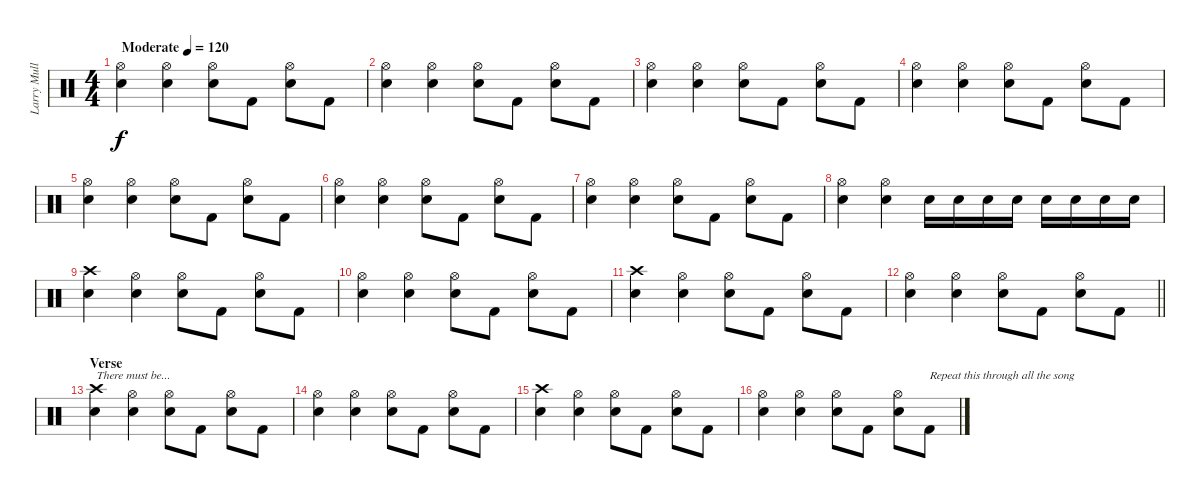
\track ("Larry Mullen Jr" "Larry Mull") {instrument percussion}
\staff {score}
\articulation defaults
\ts (4 4)
\tempo (120 "Moderate")
\clef neutral
\ks c
("Snare (hit) 2" "Hi-Hat (open)").4{dy f} ("Snare (hit) 2" "Hi-Hat (open)").4 ("Snare (hit) 2" "Hi-Hat (open)").8 "Kick (hit) 2".8 ("Snare (hit) 2" "Hi-Hat (open)").8 "Kick (hit) 2".8 |
("Snare (hit) 2" "Hi-Hat (open)").4 ("Snare (hit) 2" "Hi-Hat (open)").4 ("Snare (hit) 2" "Hi-Hat (open)").8 "Kick (hit) 2".8 ("Snare (hit) 2" "Hi-Hat (open)").8 "Kick (hit) 2".8 |
("Snare (hit) 2" "Hi-Hat (open)").4 ("Snare (hit) 2" "Hi-Hat (open)").4 ("Snare (hit) 2" "Hi-Hat (open)").8 "Kick (hit) 2".8 ("Snare (hit) 2" "Hi-Hat (open)").8 "Kick (hit) 2".8 |
("Snare (hit) 2" "Hi-Hat (open)").4 ("Snare (hit) 2" "Hi-Hat (open)").4 ("Snare (hit) 2" "Hi-Hat (open)").8 "Kick (hit) 2".8 ("Snare (hit) 2" "Hi-Hat (open)").8 "Kick (hit) 2".8 |
("Snare (hit) 2" "Hi-Hat (open)").4 ("Snare (hit) 2" "Hi-Hat (open)").4 ("Snare (hit) 2" "Hi-Hat (open)").8 "Kick (hit) 2".8 ("Snare (hit) 2" "Hi-Hat (open)").8 "Kick (hit) 2".8 |
("Snare (hit) 2" "Hi-Hat (open)").4 ("Snare (hit) 2" "Hi-Hat (open)").4 ("Snare (hit) 2" "Hi-Hat (open)").8 "Kick (hit) 2".8 ("Snare (hit) 2" "Hi-Hat (open)").8 "Kick (hit) 2".8 |
("Snare (hit) 2" "Hi-Hat (open)").4 ("Snare (hit) 2" "Hi-Hat (open)").4 ("Snare (hit) 2" "Hi-Hat (open)").8 "Kick (hit) 2".8 ("Snare (hit) 2" "Hi-Hat (open)").8 "Kick (hit) 2".8 |
("Snare (hit) 2" "Hi-Hat (open)").4 ("Snare (hit) 2" "Hi-Hat (open)").4 "Snare (hit) 2".16 "Snare (hit) 2".16 "Snare (hit) 2".16 "Snare (hit) 2".16 "Snare (hit) 2".16 "Snare (hit) 2".16 "Snare (hit) 2".16 "Snare (hit) 2".16 |
("Snare (hit) 2" "Crash high (hit)").4 ("Snare (hit) 2" "Hi-Hat (open)").4 ("Snare (hit) 2" "Hi-Hat (open)").8 "Kick (hit) 2".8 ("Snare (hit) 2" "Hi-Hat (open)").8 "Kick (hit) 2".8 |
("Snare (hit) 2" "Hi-Hat (open)").4 ("Snare (hit) 2" "Hi-Hat (open)").4 ("Snare (hit) 2" "Hi-Hat (open)").8 "Kick (hit) 2".8 ("Snare (hit) 2" "Hi-Hat (open)").8 "Kick (hit) 2".8 |
("Snare (hit) 2" "Crash high (hit)").4 ("Snare (hit) 2" "Hi-Hat (open)").4 ("Snare (hit) 2" "Hi-Hat (open)").8 "Kick (hit) 2".8 ("Snare (hit) 2" "Hi-Hat (open)").8 "Kick (hit) 2".8 |
\barLineRight lightlight
("Snare (hit) 2" "Hi-Hat (open)").4 ("Snare (hit) 2" "Hi-Hat (open)").4 ("Snare (hit) 2" "Hi-Hat (open)").8 "Kick (hit) 2".8 ("Snare (hit) 2" "Hi-Hat (open)").8 "Kick (hit) 2".8 |
\section ("" "Verse")
("Snare (hit) 2" "Crash high (hit)").4{txt "There must be..."} ("Snare (hit) 2" "Hi-Hat (open)").4 ("Snare (hit) 2" "Hi-Hat (open)").8 "Kick (hit) 2".8 ("Snare (hit) 2" "Hi-Hat (open)").8 "Kick (hit) 2".8 |
("Snare (hit) 2" "Hi-Hat (open)").4 ("Snare (hit) 2" "Hi-Hat (open)").4 ("Snare (hit) 2" "Hi-Hat (open)").8 "Kick (hit) 2".8 ("Snare (hit) 2" "Hi-Hat (open)").8 "Kick (hit) 2".8 |
("Snare (hit) 2" "Crash high (hit)").4 ("Snare (hit) 2" "Hi-Hat (open)").4 ("Snare (hit) 2" "Hi-Hat (open)").8 "Kick (hit) 2".8 ("Snare (hit) 2" "Hi-Hat (open)").8 "Kick (hit) 2".8 |
("Snare (hit) 2" "Hi-Hat (open)").4 ("Snare (hit) 2" "Hi-Hat (open)").4 ("Snare (hit) 2" "Hi-Hat (open)").8 "Kick (hit) 2".8 ("Snare (hit) 2" "Hi-Hat (open)").8 "Kick (hit) 2".8{txt "Repeat this through all the song"}
